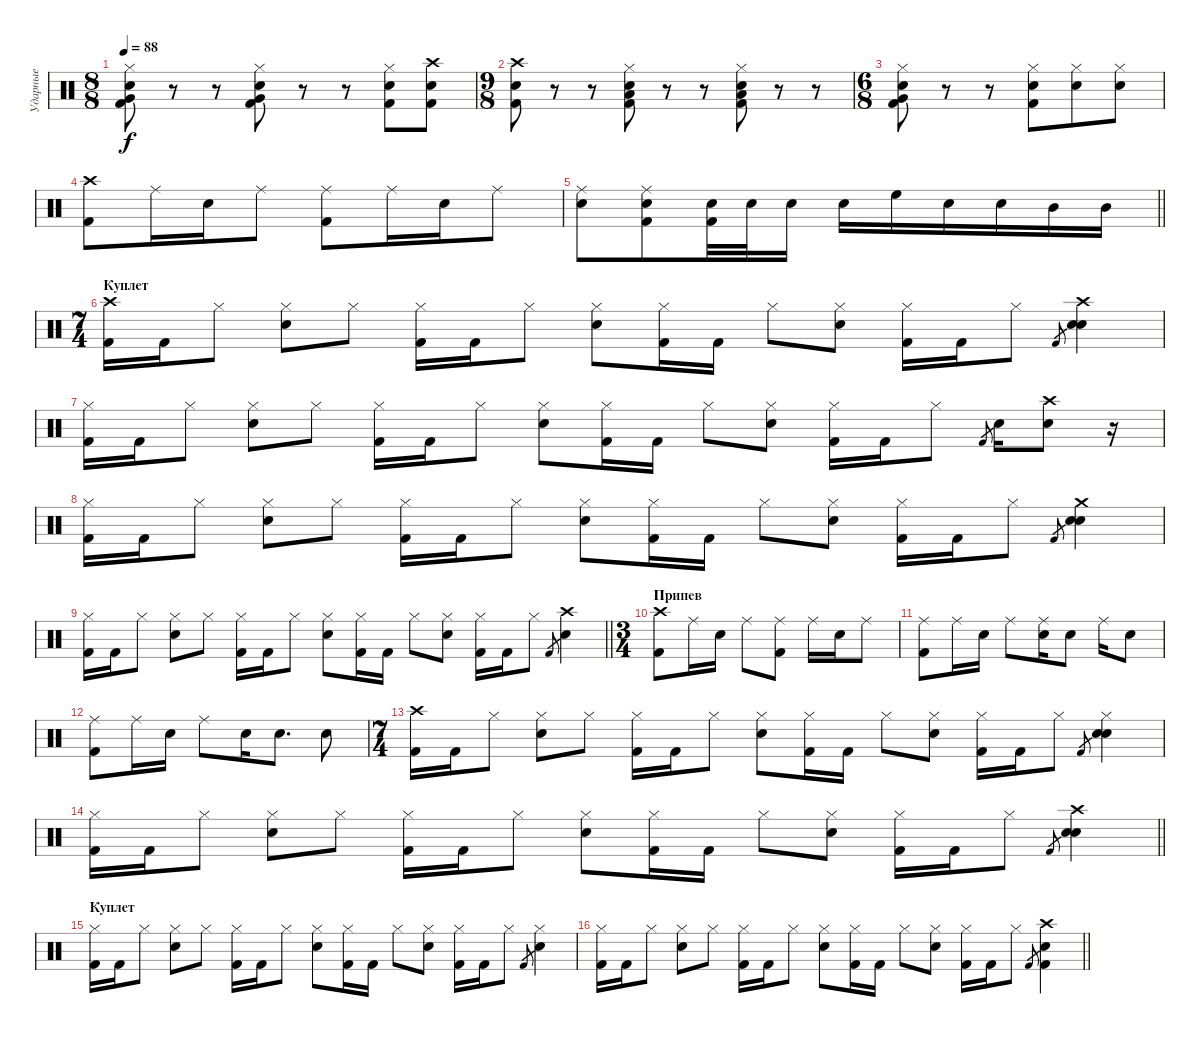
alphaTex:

\track ("Ударные" "Ударные") {instrument percussion}
\staff {score}
\articulation defaults
\ts (8 8)
\tempo 88
\clef neutral
\ks c
("Hi-Hat (closed)" "Very Low Tom (hit)" "Snare (hit) 2" "Kick (hit) 2").8{dy f} r.8 r.8 ("Hi-Hat (closed)" "Very Low Tom (hit)" "Snare (hit) 2" "Kick (hit) 2").8 r.8 r.8 ("Hi-Hat (closed)" "Snare (hit) 2" "Kick (hit) 2").8 ("Crash high (hit)" "Snare (hit) 2" "Kick (hit) 2").8 |
\ts (9 8)
("Crash high (hit)" "Snare (hit) 2" "Kick (hit) 2").8 r.8 r.8 ("Hi-Hat (closed)" "Low Floor Tom (hit)" "Snare (hit) 2" "Kick (hit) 2").8 r.8 r.8 ("Hi-Hat (closed)" "Low Floor Tom (hit)" "Snare (hit) 2" "Kick (hit) 2").8 r.8 r.8 |
\ts (6 8)
("Hi-Hat (closed)" "Very Low Tom (hit)" "Snare (hit) 2" "Kick (hit) 2").8 r.8 r.8 ("Hi-Hat (closed)" "Snare (hit) 2" "Kick (hit) 2").8 ("Hi-Hat (closed)" "Snare (hit) 2").8 ("Hi-Hat (closed)" "Snare (hit) 2").8 |
("Crash high (hit)" "Kick (hit) 2").8 "Ride (middle)".16 "Snare (hit) 2".16 "Ride (middle)".8 ("Ride (middle)" "Kick (hit) 2").8 "Ride (middle)".16 "Snare (hit) 2".16 "Ride (middle)".8 |
\barLineRight lightlight
("Ride (middle)" "Snare (hit) 2").8 ("Ride (middle)" "Snare (hit) 2" "Kick (hit) 2").8 ("Snare (hit) 2" "Kick (hit) 2").32 "Snare (hit) 2".32 "Snare (hit) 2".16 "Snare (hit) 2".16 "High Floor Tom (hit)".16 "Snare (hit) 2".16 "Snare (hit) 2".16 "Mid Tom (hit)".16 "Mid Tom (hit)".16 |
\ts (7 4)
\section ("" "Куплет")
("Crash high (hit)" "Kick (hit) 2").16 "Kick (hit) 2".16 "Hi-Hat (closed)".8 ("Hi-Hat (closed)" "Snare (hit) 2").8 "Hi-Hat (closed)".8 ("Hi-Hat (closed)" "Kick (hit) 2").16 "Kick (hit) 2".16 "Hi-Hat (closed)".8 ("Hi-Hat (closed)" "Snare (hit) 2").8 ("Hi-Hat (closed)" "Kick (hit) 2").16 "Kick (hit) 2".16 "Hi-Hat (closed)".8 ("Hi-Hat (closed)" "Snare (hit) 2").8 ("Hi-Hat (closed)" "Kick (hit) 2").16 "Kick (hit) 2".16 "Hi-Hat (closed)".8 "Kick (hit) 2".8{gr} ("Crash high (hit)" "Snare (hit) 2" "Snare (hit) 2").4 |
("Hi-Hat (closed)" "Kick (hit) 2").16 "Kick (hit) 2".16 "Hi-Hat (closed)".8 ("Hi-Hat (closed)" "Snare (hit) 2").8 "Hi-Hat (closed)".8 ("Hi-Hat (closed)" "Kick (hit) 2").16 "Kick (hit) 2".16 "Hi-Hat (closed)".8 ("Hi-Hat (closed)" "Snare (hit) 2").8 ("Hi-Hat (closed)" "Kick (hit) 2").16 "Kick (hit) 2".16 "Hi-Hat (closed)".8 ("Hi-Hat (closed)" "Snare (hit) 2").8 ("Hi-Hat (closed)" "Kick (hit) 2").16 "Kick (hit) 2".16 "Hi-Hat (closed)".8 "Kick (hit) 2".8{gr} "Snare (hit) 2".16 ("Crash high (hit)" "Snare (hit) 2").8 r.16 |
("Hi-Hat (closed)" "Kick (hit) 2").16 "Kick (hit) 2".16 "Hi-Hat (closed)".8 ("Hi-Hat (closed)" "Snare (hit) 2").8 "Hi-Hat (closed)".8 ("Hi-Hat (closed)" "Kick (hit) 2").16 "Kick (hit) 2".16 "Hi-Hat (closed)".8 ("Hi-Hat (closed)" "Snare (hit) 2").8 ("Hi-Hat (closed)" "Kick (hit) 2").16 "Kick (hit) 2".16 "Hi-Hat (closed)".8 ("Hi-Hat (closed)" "Snare (hit) 2").8 ("Hi-Hat (closed)" "Kick (hit) 2").16 "Kick (hit) 2".16 "Hi-Hat (closed)".8 "Kick (hit) 2".8{gr} ("Crash medium (hit)" "Snare (hit) 2" "Snare (hit) 2").4 |
\barLineRight lightlight
("Hi-Hat (closed)" "Kick (hit) 2").16 "Kick (hit) 2".16 "Hi-Hat (closed)".8 ("Hi-Hat (closed)" "Snare (hit) 2").8 "Hi-Hat (closed)".8 ("Hi-Hat (closed)" "Kick (hit) 2").16 "Kick (hit) 2".16 "Hi-Hat (closed)".8 ("Hi-Hat (closed)" "Snare (hit) 2").8 ("Hi-Hat (closed)" "Kick (hit) 2").16 "Kick (hit) 2".16 "Hi-Hat (closed)".8 ("Hi-Hat (closed)" "Snare (hit) 2").8 ("Hi-Hat (closed)" "Kick (hit) 2").16 "Kick (hit) 2".16 "Hi-Hat (closed)".8 "Kick (hit) 2".8{gr} ("Crash high (hit)" "Snare (hit) 2").4 |
\ts (3 4)
\section ("" "Припев")
("Crash high (hit)" "Kick (hit) 2").8 "Ride (middle)".16 "Snare (hit) 2".16 "Ride (middle)".8 ("Ride (middle)" "Kick (hit) 2").8 "Ride (middle)".16 "Snare (hit) 2".16 "Ride (middle)".8 |
("Ride (middle)" "Kick (hit) 2").8 "Ride (middle)".16 "Snare (hit) 2".16 "Ride (middle)".8 ("Ride (middle)" "Snare (hit) 2").16 "Snare (hit) 2".8 "Ride (middle)".16 "Snare (hit) 2".8 |
("Ride (middle)" "Kick (hit) 2").8 "Ride (middle)".16 "Snare (hit) 2".16 "Ride (middle)".8 "Snare (hit) 2".16 "Snare (hit) 2".8{d} "Snare (hit) 2".8 |
\ts (7 4)
("Crash high (hit)" "Kick (hit) 2").16 "Kick (hit) 2".16 "Hi-Hat (closed)".8 ("Hi-Hat (closed)" "Snare (hit) 2").8 "Hi-Hat (closed)".8 ("Hi-Hat (closed)" "Kick (hit) 2").16 "Kick (hit) 2".16 "Hi-Hat (closed)".8 ("Hi-Hat (closed)" "Snare (hit) 2").8 ("Hi-Hat (closed)" "Kick (hit) 2").16 "Kick (hit) 2".16 "Hi-Hat (closed)".8 ("Hi-Hat (closed)" "Snare (hit) 2").8 ("Hi-Hat (closed)" "Kick (hit) 2").16 "Kick (hit) 2".16 "Hi-Hat (closed)".8 "Kick (hit) 2".8{gr} ("Hi-Hat (closed)" "Snare (hit) 2" "Snare (hit) 2").4 |
\barLineRight lightlight
("Hi-Hat (closed)" "Kick (hit) 2").16 "Kick (hit) 2".16 "Hi-Hat (closed)".8 ("Hi-Hat (closed)" "Snare (hit) 2").8 "Hi-Hat (closed)".8 ("Hi-Hat (closed)" "Kick (hit) 2").16 "Kick (hit) 2".16 "Hi-Hat (closed)".8 ("Hi-Hat (closed)" "Snare (hit) 2").8 ("Hi-Hat (closed)" "Kick (hit) 2").16 "Kick (hit) 2".16 "Hi-Hat (closed)".8 ("Hi-Hat (closed)" "Snare (hit) 2").8 ("Hi-Hat (closed)" "Kick (hit) 2").16 "Kick (hit) 2".16 "Hi-Hat (closed)".8 "Kick (hit) 2".8{gr} ("Crash high (hit)" "Snare (hit) 2" "Snare (hit) 2").4 |
\section ("" "Куплет")
("Hi-Hat (closed)" "Kick (hit) 2").16 "Kick (hit) 2".16 "Hi-Hat (closed)".8 ("Hi-Hat (closed)" "Snare (hit) 2").8 "Hi-Hat (closed)".8 ("Hi-Hat (closed)" "Kick (hit) 2").16 "Kick (hit) 2".16 "Hi-Hat (closed)".8 ("Hi-Hat (closed)" "Snare (hit) 2").8 ("Hi-Hat (closed)" "Kick (hit) 2").16 "Kick (hit) 2".16 "Hi-Hat (closed)".8 ("Hi-Hat (closed)" "Snare (hit) 2").8 ("Hi-Hat (closed)" "Kick (hit) 2").16 "Kick (hit) 2".16 "Hi-Hat (closed)".8 "Kick (hit) 2".8{gr} ("Hi-Hat (closed)" "Snare (hit) 2").4 |
\barLineRight lightlight
("Hi-Hat (closed)" "Kick (hit) 2").16 "Kick (hit) 2".16 "Hi-Hat (closed)".8 ("Hi-Hat (closed)" "Snare (hit) 2").8 "Hi-Hat (closed)".8 ("Hi-Hat (closed)" "Kick (hit) 2").16 "Kick (hit) 2".16 "Hi-Hat (closed)".8 ("Hi-Hat (closed)" "Snare (hit) 2").8 ("Hi-Hat (closed)" "Kick (hit) 2").16 "Kick (hit) 2".16 "Hi-Hat (closed)".8 ("Hi-Hat (closed)" "Snare (hit) 2").8 ("Hi-Hat (closed)" "Kick (hit) 2").16 "Kick (hit) 2".16 "Hi-Hat (closed)".8 "Kick (hit) 2".8{gr} ("Crash high (hit)" "Kick (hit) 2" "Snare (hit) 2").4
